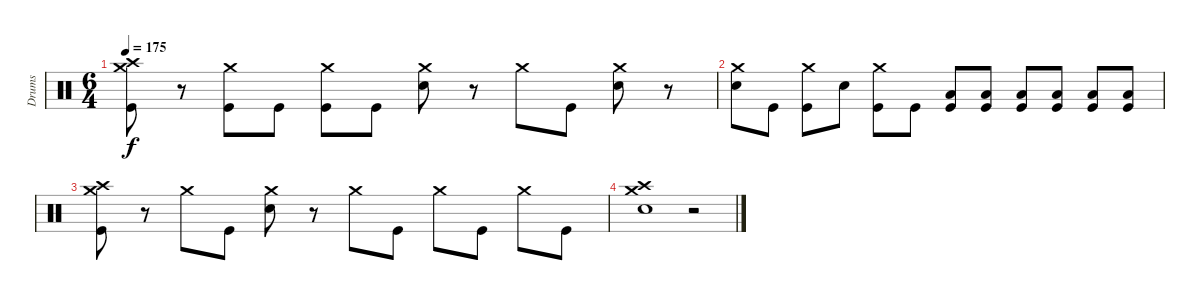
\track ("Drums" "Drums") {instrument percussion}
\staff {score}
\articulation defaults
\ts (6 4)
\tempo 175
\clef neutral
\ks c
("Crash high (hit)" "Crash medium (hit)" "Kick (hit)").8{dy f} r.8 ("Crash medium (hit)" "Kick (hit)").8 "Kick (hit)".8 ("Crash medium (hit)" "Kick (hit)").8 "Kick (hit)".8 ("Crash medium (hit)" "Snare (hit) 2").8 r.8 "Crash medium (hit)".8 "Kick (hit)".8 ("Crash medium (hit)" "Snare (hit) 2").8 r.8 |
("Crash medium (hit)" "Snare (hit) 2").8 "Kick (hit)".8 ("Crash medium (hit)" "Kick (hit)").8 "Snare (hit) 2".8 ("Crash medium (hit)" "Kick (hit)").8 "Kick (hit)".8 ("Low Floor Tom (hit)" "Kick (hit)").8 ("Low Floor Tom (hit)" "Kick (hit)").8 ("Low Floor Tom (hit)" "Kick (hit)").8 ("Low Floor Tom (hit)" "Kick (hit)").8 ("Low Floor Tom (hit)" "Kick (hit)").8 ("Low Floor Tom (hit)" "Kick (hit)").8 |
("Crash high (hit)" "Crash medium (hit)" "Kick (hit)").8 r.8 "Crash medium (hit)".8 "Kick (hit)".8 ("Crash medium (hit)" "Snare (hit) 2").8 r.8 "Crash medium (hit)".8 "Kick (hit)".8 "Crash medium (hit)".8 "Kick (hit)".8 "Crash medium (hit)".8 "Kick (hit)".8 |
("Crash high (hit)" "Crash medium (hit)" "Snare (hit) 2").1 r.2
